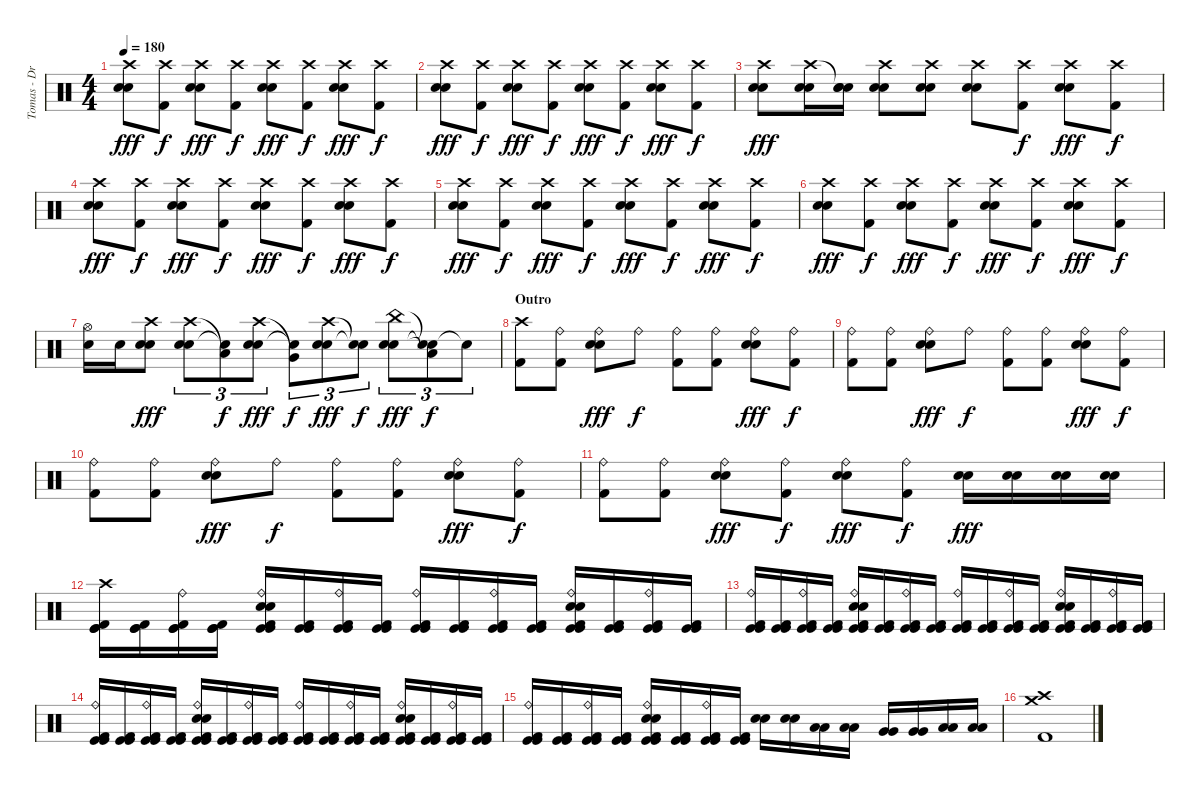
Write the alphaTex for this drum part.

\track ("Tomas - Drums" "Tomas - Dr") {instrument percussion}
\staff {score}
\articulation defaults
\ts (4 4)
\tempo 180
\clef neutral
\ks c
("Crash high (hit)" "Electric Snare (hit)" "Electric Snare (hit)").8{dy fff} ("Crash high (hit)" "Kick (hit) 2").8{dy f} ("Crash high (hit)" "Electric Snare (hit)" "Electric Snare (hit)").8{dy fff} ("Crash high (hit)" "Kick (hit) 2").8{dy f} ("Crash high (hit)" "Electric Snare (hit)" "Electric Snare (hit)").8{dy fff} ("Crash high (hit)" "Kick (hit) 2").8{dy f} ("Crash high (hit)" "Electric Snare (hit)" "Electric Snare (hit)").8{dy fff} ("Crash high (hit)" "Kick (hit) 2").8{dy f} |
("Crash high (hit)" "Electric Snare (hit)" "Electric Snare (hit)").8{dy fff} ("Crash high (hit)" "Kick (hit) 2").8{dy f} ("Crash high (hit)" "Electric Snare (hit)" "Electric Snare (hit)").8{dy fff} ("Crash high (hit)" "Kick (hit) 2").8{dy f} ("Crash high (hit)" "Electric Snare (hit)" "Electric Snare (hit)").8{dy fff} ("Crash high (hit)" "Kick (hit) 2").8{dy f} ("Crash high (hit)" "Electric Snare (hit)" "Electric Snare (hit)").8{dy fff} ("Crash high (hit)" "Kick (hit) 2").8{dy f} |
("Crash high (hit)" "Electric Snare (hit)" "Electric Snare (hit)").8{dy fff} ("Crash high (hit)" "Electric Snare (hit)" "Electric Snare (hit)").16 ("Snare (hit)"{t} "Electric Snare (hit)" "Electric Snare (hit)").16 ("Crash high (hit)" "Electric Snare (hit)" "Electric Snare (hit)").8 ("Crash high (hit)" "Electric Snare (hit)" "Electric Snare (hit)").8 ("Crash high (hit)" "Electric Snare (hit)" "Electric Snare (hit)").8 ("Crash high (hit)" "Kick (hit) 2").8{dy f} ("Crash high (hit)" "Electric Snare (hit)" "Electric Snare (hit)").8{dy fff} ("Crash high (hit)" "Kick (hit) 2").8{dy f} |
("Crash high (hit)" "Electric Snare (hit)" "Electric Snare (hit)").8{dy fff} ("Crash high (hit)" "Kick (hit) 2").8{dy f} ("Crash high (hit)" "Electric Snare (hit)" "Electric Snare (hit)").8{dy fff} ("Crash high (hit)" "Kick (hit) 2").8{dy f} ("Crash high (hit)" "Electric Snare (hit)" "Electric Snare (hit)").8{dy fff} ("Crash high (hit)" "Kick (hit) 2").8{dy f} ("Crash high (hit)" "Electric Snare (hit)" "Electric Snare (hit)").8{dy fff} ("Crash high (hit)" "Kick (hit) 2").8{dy f} |
("Crash high (hit)" "Electric Snare (hit)" "Electric Snare (hit)").8{dy fff} ("Crash high (hit)" "Kick (hit) 2").8{dy f} ("Crash high (hit)" "Electric Snare (hit)" "Electric Snare (hit)").8{dy fff} ("Crash high (hit)" "Kick (hit) 2").8{dy f} ("Crash high (hit)" "Electric Snare (hit)" "Electric Snare (hit)").8{dy fff} ("Crash high (hit)" "Kick (hit) 2").8{dy f} ("Crash high (hit)" "Electric Snare (hit)" "Electric Snare (hit)").8{dy fff} ("Crash high (hit)" "Kick (hit) 2").8{dy f} |
("Crash high (hit)" "Electric Snare (hit)" "Electric Snare (hit)").8{dy fff} ("Crash high (hit)" "Kick (hit) 2").8{dy f} ("Crash high (hit)" "Electric Snare (hit)" "Electric Snare (hit)").8{dy fff} ("Crash high (hit)" "Kick (hit) 2").8{dy f} ("Crash high (hit)" "Electric Snare (hit)" "Electric Snare (hit)").8{dy fff} ("Crash high (hit)" "Kick (hit) 2").8{dy f} ("Crash high (hit)" "Electric Snare (hit)" "Electric Snare (hit)").8{dy fff} ("Crash high (hit)" "Kick (hit) 2").8{dy f} |
("Hi-Hat (open)" "Electric Snare (hit)").16 "Electric Snare (hit)".16 ("Crash high (hit)" "Electric Snare (hit)" "Electric Snare (hit)").8{dy fff} ("Crash high (hit)" "Electric Snare (hit)" "Electric Snare (hit)").8{tu (3 2)} ("Low Tom (hit)"{t} "Electric Snare (hit)"{t}).8{tu (3 2) dy f} ("Crash high (hit)" "Electric Snare (hit)" "Electric Snare (hit)").8{tu (3 2) dy fff} ("Very Low Tom (hit)"{t} "Electric Snare (hit)"{t}).8{tu (3 2) dy f} ("Crash high (hit)" "Electric Snare (hit)" "Electric Snare (hit)").8{tu (3 2) dy fff} ("Electric Snare (hit)"{t} "Electric Snare (hit)"{t}).8{tu (3 2) dy f} ("China (hit)" "Electric Snare (hit)" "Electric Snare (hit)").8{tu (3 2) dy fff} ("Snare (hit)"{t} "Electric Snare (hit)"{t} "Low Floor Tom (hit)"{t}).8{tu (3 2) dy f} "Snare (hit)"{t}.8{tu (3 2)} |
\section ("" "Outro")
("Crash high (hit)" "Kick (hit) 2").8 ("Ride (bell)" "Kick (hit) 2").8 ("Ride (bell)" "Electric Snare (hit)" "Electric Snare (hit)").8{dy fff} "Ride (bell)".8{dy f} ("Ride (bell)" "Kick (hit) 2").8 ("Ride (bell)" "Kick (hit) 2").8 ("Ride (bell)" "Electric Snare (hit)" "Electric Snare (hit)").8{dy fff} ("Ride (bell)" "Kick (hit) 2").8{dy f} |
("Ride (bell)" "Kick (hit) 2").8 ("Ride (bell)" "Kick (hit) 2").8 ("Ride (bell)" "Electric Snare (hit)" "Electric Snare (hit)").8{dy fff} "Ride (bell)".8{dy f} ("Ride (bell)" "Kick (hit) 2").8 ("Ride (bell)" "Kick (hit) 2").8 ("Ride (bell)" "Electric Snare (hit)" "Electric Snare (hit)").8{dy fff} ("Ride (bell)" "Kick (hit) 2").8{dy f} |
("Ride (bell)" "Kick (hit) 2").8 ("Ride (bell)" "Kick (hit) 2").8 ("Ride (bell)" "Electric Snare (hit)" "Electric Snare (hit)").8{dy fff} "Ride (bell)".8{dy f} ("Ride (bell)" "Kick (hit) 2").8 ("Ride (bell)" "Kick (hit) 2").8 ("Ride (bell)" "Electric Snare (hit)" "Electric Snare (hit)").8{dy fff} ("Ride (bell)" "Kick (hit) 2").8{dy f} |
("Ride (bell)" "Kick (hit) 2").8 ("Ride (bell)" "Kick (hit) 2").8 ("Ride (bell)" "Electric Snare (hit)" "Electric Snare (hit)").8{dy fff} ("Ride (bell)" "Kick (hit) 2").8{dy f} ("Ride (bell)" "Electric Snare (hit)" "Electric Snare (hit)").8{dy fff} ("Ride (bell)" "Kick (hit) 2").8{dy f} ("Electric Snare (hit)" "Electric Snare (hit)").16{dy fff} ("Electric Snare (hit)" "Electric Snare (hit)").16 ("Electric Snare (hit)" "Electric Snare (hit)").16 ("Electric Snare (hit)" "Electric Snare (hit)").16 |
("Crash high (hit)" "Kick (hit) 2" "Kick (hit)" "Kick (hit)").16 ("Kick (hit) 2" "Kick (hit)" "Kick (hit)").16 ("Ride (bell)" "Kick (hit) 2" "Kick (hit)" "Kick (hit)").16 ("Kick (hit) 2" "Kick (hit)" "Kick (hit)").16 ("Ride (bell)" "Kick (hit) 2" "Electric Snare (hit)" "Electric Snare (hit)" "Kick (hit)" "Kick (hit)").16 ("Kick (hit) 2" "Kick (hit)" "Kick (hit)").16 ("Ride (bell)" "Kick (hit) 2" "Kick (hit)" "Kick (hit)").16 ("Kick (hit) 2" "Kick (hit)" "Kick (hit)").16 ("Ride (bell)" "Kick (hit) 2" "Kick (hit)" "Kick (hit)").16 ("Kick (hit) 2" "Kick (hit)" "Kick (hit)").16 ("Ride (bell)" "Kick (hit) 2" "Kick (hit)" "Kick (hit)").16 ("Kick (hit) 2" "Kick (hit)" "Kick (hit)").16 ("Ride (bell)" "Kick (hit) 2" "Electric Snare (hit)" "Electric Snare (hit)" "Kick (hit)" "Kick (hit)").16 ("Kick (hit) 2" "Kick (hit)" "Kick (hit)").16 ("Ride (bell)" "Kick (hit) 2" "Kick (hit)" "Kick (hit)").16 ("Kick (hit) 2" "Kick (hit)" "Kick (hit)").16 |
("Ride (bell)" "Kick (hit) 2" "Kick (hit)" "Kick (hit)").16 ("Kick (hit) 2" "Kick (hit)" "Kick (hit)").16 ("Ride (bell)" "Kick (hit) 2" "Kick (hit)" "Kick (hit)").16 ("Kick (hit) 2" "Kick (hit)" "Kick (hit)").16 ("Ride (bell)" "Kick (hit) 2" "Electric Snare (hit)" "Electric Snare (hit)" "Kick (hit)" "Kick (hit)").16 ("Kick (hit) 2" "Kick (hit)" "Kick (hit)").16 ("Ride (bell)" "Kick (hit) 2" "Kick (hit)" "Kick (hit)").16 ("Kick (hit) 2" "Kick (hit)" "Kick (hit)").16 ("Ride (bell)" "Kick (hit) 2" "Kick (hit)" "Kick (hit)").16 ("Kick (hit) 2" "Kick (hit)" "Kick (hit)").16 ("Ride (bell)" "Kick (hit) 2" "Kick (hit)" "Kick (hit)").16 ("Kick (hit) 2" "Kick (hit)" "Kick (hit)").16 ("Ride (bell)" "Kick (hit) 2" "Electric Snare (hit)" "Electric Snare (hit)" "Kick (hit)" "Kick (hit)").16 ("Kick (hit) 2" "Kick (hit)" "Kick (hit)").16 ("Ride (bell)" "Kick (hit) 2" "Kick (hit)" "Kick (hit)").16 ("Kick (hit) 2" "Kick (hit)" "Kick (hit)").16 |
("Ride (bell)" "Kick (hit) 2" "Kick (hit)" "Kick (hit)").16 ("Kick (hit) 2" "Kick (hit)" "Kick (hit)").16 ("Ride (bell)" "Kick (hit) 2" "Kick (hit)" "Kick (hit)").16 ("Kick (hit) 2" "Kick (hit)" "Kick (hit)").16 ("Ride (bell)" "Kick (hit) 2" "Electric Snare (hit)" "Electric Snare (hit)" "Kick (hit)" "Kick (hit)").16 ("Kick (hit) 2" "Kick (hit)" "Kick (hit)").16 ("Ride (bell)" "Kick (hit) 2" "Kick (hit)" "Kick (hit)").16 ("Kick (hit) 2" "Kick (hit)" "Kick (hit)").16 ("Ride (bell)" "Kick (hit) 2" "Kick (hit)" "Kick (hit)").16 ("Kick (hit) 2" "Kick (hit)" "Kick (hit)").16 ("Ride (bell)" "Kick (hit) 2" "Kick (hit)" "Kick (hit)").16 ("Kick (hit) 2" "Kick (hit)" "Kick (hit)").16 ("Ride (bell)" "Kick (hit) 2" "Electric Snare (hit)" "Electric Snare (hit)" "Kick (hit)" "Kick (hit)").16 ("Kick (hit) 2" "Kick (hit)" "Kick (hit)").16 ("Ride (bell)" "Kick (hit) 2" "Kick (hit)" "Kick (hit)").16 ("Kick (hit) 2" "Kick (hit)" "Kick (hit)").16 |
("Ride (bell)" "Kick (hit) 2" "Kick (hit)" "Kick (hit)").16 ("Kick (hit) 2" "Kick (hit)" "Kick (hit)").16 ("Ride (bell)" "Kick (hit) 2" "Kick (hit)" "Kick (hit)").16 ("Kick (hit) 2" "Kick (hit)" "Kick (hit)").16 ("Ride (bell)" "Kick (hit) 2" "Electric Snare (hit)" "Electric Snare (hit)" "Kick (hit)" "Kick (hit)").16 ("Kick (hit) 2" "Kick (hit)" "Kick (hit)").16 ("Ride (bell)" "Kick (hit) 2" "Kick (hit)" "Kick (hit)").16 ("Kick (hit) 2" "Kick (hit)" "Kick (hit)").16 ("Electric Snare (hit)" "Electric Snare (hit)").16 ("Electric Snare (hit)" "Electric Snare (hit)").16 ("Low Tom (hit)" "Low Tom (hit)").16 ("Low Tom (hit)" "Low Tom (hit)").16 ("Very Low Tom (hit)" "Very Low Tom (hit)").16 ("Very Low Tom (hit)" "Very Low Tom (hit)").16 ("Low Floor Tom (hit)" "Low Floor Tom (hit)").16 ("Low Floor Tom (hit)" "Low Floor Tom (hit)").16 |
("Crash medium (hit)" "Crash high (hit)" "Kick (hit) 2").1
